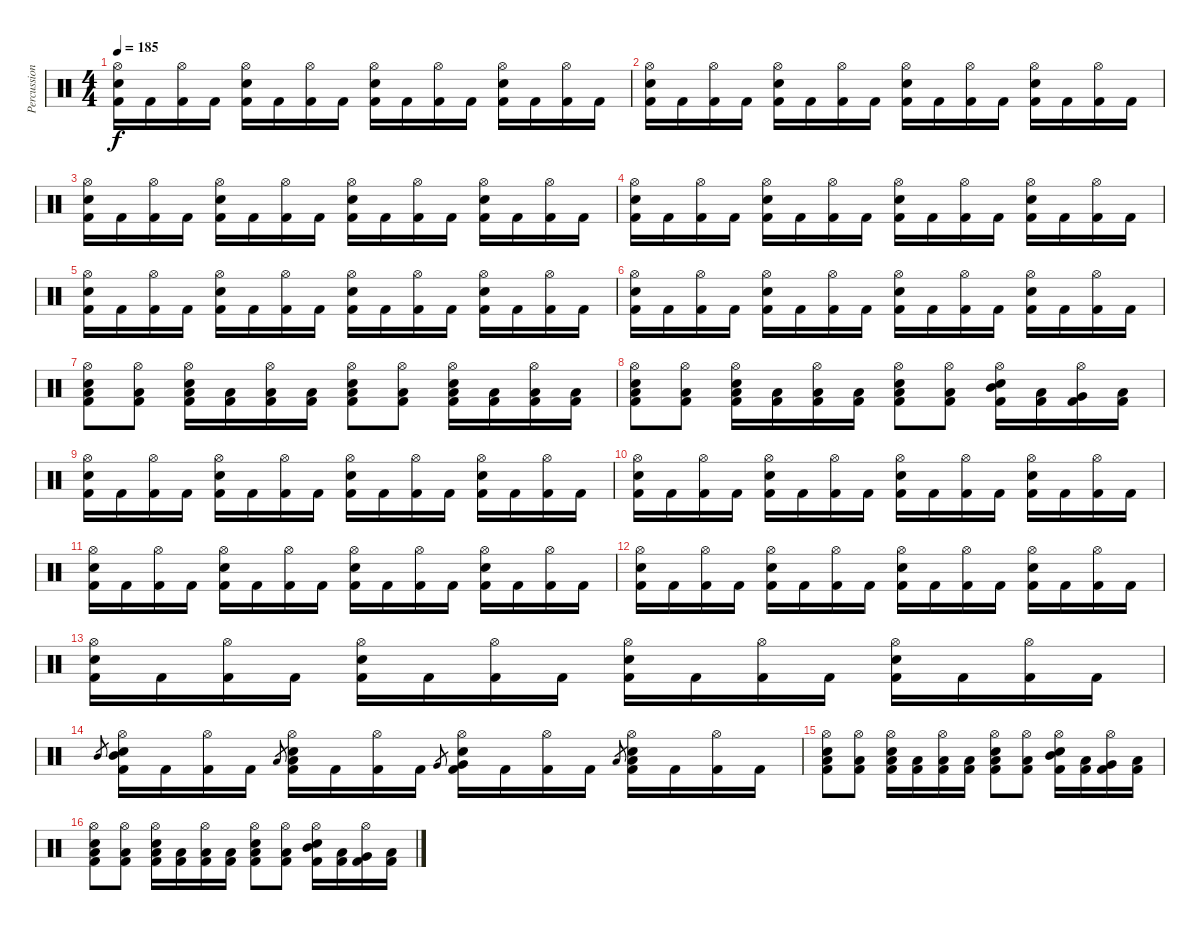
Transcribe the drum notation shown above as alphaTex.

\track ("Percussion" "Percussion") {instrument percussion}
\staff {score}
\articulation defaults
\ts (4 4)
\tempo 185
\clef neutral
\ks c
("Hi-Hat (open)" "Electric Snare (hit)" "Kick (hit) 2").16{dy f} "Kick (hit) 2".16 ("Hi-Hat (open)" "Kick (hit) 2").16 "Kick (hit) 2".16 ("Hi-Hat (open)" "Electric Snare (hit)" "Kick (hit) 2").16 "Kick (hit) 2".16 ("Hi-Hat (open)" "Kick (hit) 2").16 "Kick (hit) 2".16 ("Hi-Hat (open)" "Electric Snare (hit)" "Kick (hit) 2").16 "Kick (hit) 2".16 ("Hi-Hat (open)" "Kick (hit) 2").16 "Kick (hit) 2".16 ("Hi-Hat (open)" "Electric Snare (hit)" "Kick (hit) 2").16 "Kick (hit) 2".16 ("Hi-Hat (open)" "Kick (hit) 2").16 "Kick (hit) 2".16 |
("Hi-Hat (open)" "Electric Snare (hit)" "Kick (hit) 2").16 "Kick (hit) 2".16 ("Hi-Hat (open)" "Kick (hit) 2").16 "Kick (hit) 2".16 ("Hi-Hat (open)" "Electric Snare (hit)" "Kick (hit) 2").16 "Kick (hit) 2".16 ("Hi-Hat (open)" "Kick (hit) 2").16 "Kick (hit) 2".16 ("Hi-Hat (open)" "Electric Snare (hit)" "Kick (hit) 2").16 "Kick (hit) 2".16 ("Hi-Hat (open)" "Kick (hit) 2").16 "Kick (hit) 2".16 ("Hi-Hat (open)" "Electric Snare (hit)" "Kick (hit) 2").16 "Kick (hit) 2".16 ("Hi-Hat (open)" "Kick (hit) 2").16 "Kick (hit) 2".16 |
("Hi-Hat (open)" "Electric Snare (hit)" "Kick (hit) 2").16 "Kick (hit) 2".16 ("Hi-Hat (open)" "Kick (hit) 2").16 "Kick (hit) 2".16 ("Hi-Hat (open)" "Electric Snare (hit)" "Kick (hit) 2").16 "Kick (hit) 2".16 ("Hi-Hat (open)" "Kick (hit) 2").16 "Kick (hit) 2".16 ("Hi-Hat (open)" "Electric Snare (hit)" "Kick (hit) 2").16 "Kick (hit) 2".16 ("Hi-Hat (open)" "Kick (hit) 2").16 "Kick (hit) 2".16 ("Hi-Hat (open)" "Electric Snare (hit)" "Kick (hit) 2").16 "Kick (hit) 2".16 ("Hi-Hat (open)" "Kick (hit) 2").16 "Kick (hit) 2".16 |
("Hi-Hat (open)" "Electric Snare (hit)" "Kick (hit) 2").16 "Kick (hit) 2".16 ("Hi-Hat (open)" "Kick (hit) 2").16 "Kick (hit) 2".16 ("Hi-Hat (open)" "Electric Snare (hit)" "Kick (hit) 2").16 "Kick (hit) 2".16 ("Hi-Hat (open)" "Kick (hit) 2").16 "Kick (hit) 2".16 ("Hi-Hat (open)" "Electric Snare (hit)" "Kick (hit) 2").16 "Kick (hit) 2".16 ("Hi-Hat (open)" "Kick (hit) 2").16 "Kick (hit) 2".16 ("Hi-Hat (open)" "Electric Snare (hit)" "Kick (hit) 2").16 "Kick (hit) 2".16 ("Hi-Hat (open)" "Kick (hit) 2").16 "Kick (hit) 2".16 |
("Hi-Hat (open)" "Electric Snare (hit)" "Kick (hit) 2").16 "Kick (hit) 2".16 ("Hi-Hat (open)" "Kick (hit) 2").16 "Kick (hit) 2".16 ("Hi-Hat (open)" "Electric Snare (hit)" "Kick (hit) 2").16 "Kick (hit) 2".16 ("Hi-Hat (open)" "Kick (hit) 2").16 "Kick (hit) 2".16 ("Hi-Hat (open)" "Electric Snare (hit)" "Kick (hit) 2").16 "Kick (hit) 2".16 ("Hi-Hat (open)" "Kick (hit) 2").16 "Kick (hit) 2".16 ("Hi-Hat (open)" "Electric Snare (hit)" "Kick (hit) 2").16 "Kick (hit) 2".16 ("Hi-Hat (open)" "Kick (hit) 2").16 "Kick (hit) 2".16 |
("Hi-Hat (open)" "Electric Snare (hit)" "Kick (hit) 2").16 "Kick (hit) 2".16 ("Hi-Hat (open)" "Kick (hit) 2").16 "Kick (hit) 2".16 ("Hi-Hat (open)" "Electric Snare (hit)" "Kick (hit) 2").16 "Kick (hit) 2".16 ("Hi-Hat (open)" "Kick (hit) 2").16 "Kick (hit) 2".16 ("Hi-Hat (open)" "Electric Snare (hit)" "Kick (hit) 2").16 "Kick (hit) 2".16 ("Hi-Hat (open)" "Kick (hit) 2").16 "Kick (hit) 2".16 ("Hi-Hat (open)" "Electric Snare (hit)" "Kick (hit) 2").16 "Kick (hit) 2".16 ("Hi-Hat (open)" "Kick (hit) 2").16 "Kick (hit) 2".16 |
("Hi-Hat (open)" "Low Floor Tom (hit)" "Electric Snare (hit)" "Kick (hit) 2").8 ("Hi-Hat (open)" "Low Floor Tom (hit)" "Kick (hit) 2").8 ("Hi-Hat (open)" "Low Floor Tom (hit)" "Electric Snare (hit)" "Kick (hit) 2").16 ("Low Floor Tom (hit)" "Kick (hit) 2").16 ("Hi-Hat (open)" "Low Floor Tom (hit)" "Kick (hit) 2").16 ("Low Floor Tom (hit)" "Kick (hit) 2").16 ("Hi-Hat (open)" "Low Floor Tom (hit)" "Electric Snare (hit)" "Kick (hit) 2").8 ("Hi-Hat (open)" "Low Floor Tom (hit)" "Kick (hit) 2").8 ("Hi-Hat (open)" "Low Floor Tom (hit)" "Electric Snare (hit)" "Kick (hit) 2").16 ("Low Floor Tom (hit)" "Kick (hit) 2").16 ("Hi-Hat (open)" "Low Floor Tom (hit)" "Kick (hit) 2").16 ("Low Floor Tom (hit)" "Kick (hit) 2").16 |
("Hi-Hat (open)" "Low Floor Tom (hit)" "Electric Snare (hit)" "Kick (hit) 2").8 ("Hi-Hat (open)" "Low Floor Tom (hit)" "Kick (hit) 2").8 ("Hi-Hat (open)" "Low Floor Tom (hit)" "Electric Snare (hit)" "Kick (hit) 2").16 ("Low Floor Tom (hit)" "Kick (hit) 2").16 ("Hi-Hat (open)" "Low Floor Tom (hit)" "Kick (hit) 2").16 ("Low Floor Tom (hit)" "Kick (hit) 2").16 ("Hi-Hat (open)" "Low Floor Tom (hit)" "Electric Snare (hit)" "Kick (hit) 2").8 ("Hi-Hat (open)" "Low Floor Tom (hit)" "Kick (hit) 2").8 ("Hi-Hat (open)" "Mid Tom (hit)" "Electric Snare (hit)" "Kick (hit) 2").16 ("Low Tom (hit)" "Kick (hit) 2").16 ("Hi-Hat (open)" "Very Low Tom (hit)" "Kick (hit) 2").16 ("Low Floor Tom (hit)" "Kick (hit) 2").16 |
("Hi-Hat (open)" "Electric Snare (hit)" "Kick (hit) 2").16 "Kick (hit) 2".16 ("Hi-Hat (open)" "Kick (hit) 2").16 "Kick (hit) 2".16 ("Hi-Hat (open)" "Electric Snare (hit)" "Kick (hit) 2").16 "Kick (hit) 2".16 ("Hi-Hat (open)" "Kick (hit) 2").16 "Kick (hit) 2".16 ("Hi-Hat (open)" "Electric Snare (hit)" "Kick (hit) 2").16 "Kick (hit) 2".16 ("Hi-Hat (open)" "Kick (hit) 2").16 "Kick (hit) 2".16 ("Hi-Hat (open)" "Electric Snare (hit)" "Kick (hit) 2").16 "Kick (hit) 2".16 ("Hi-Hat (open)" "Kick (hit) 2").16 "Kick (hit) 2".16 |
("Hi-Hat (open)" "Electric Snare (hit)" "Kick (hit) 2").16 "Kick (hit) 2".16 ("Hi-Hat (open)" "Kick (hit) 2").16 "Kick (hit) 2".16 ("Hi-Hat (open)" "Electric Snare (hit)" "Kick (hit) 2").16 "Kick (hit) 2".16 ("Hi-Hat (open)" "Kick (hit) 2").16 "Kick (hit) 2".16 ("Hi-Hat (open)" "Electric Snare (hit)" "Kick (hit) 2").16 "Kick (hit) 2".16 ("Hi-Hat (open)" "Kick (hit) 2").16 "Kick (hit) 2".16 ("Hi-Hat (open)" "Electric Snare (hit)" "Kick (hit) 2").16 "Kick (hit) 2".16 ("Hi-Hat (open)" "Kick (hit) 2").16 "Kick (hit) 2".16 |
("Hi-Hat (open)" "Electric Snare (hit)" "Kick (hit) 2").16 "Kick (hit) 2".16 ("Hi-Hat (open)" "Kick (hit) 2").16 "Kick (hit) 2".16 ("Hi-Hat (open)" "Electric Snare (hit)" "Kick (hit) 2").16 "Kick (hit) 2".16 ("Hi-Hat (open)" "Kick (hit) 2").16 "Kick (hit) 2".16 ("Hi-Hat (open)" "Electric Snare (hit)" "Kick (hit) 2").16 "Kick (hit) 2".16 ("Hi-Hat (open)" "Kick (hit) 2").16 "Kick (hit) 2".16 ("Hi-Hat (open)" "Electric Snare (hit)" "Kick (hit) 2").16 "Kick (hit) 2".16 ("Hi-Hat (open)" "Kick (hit) 2").16 "Kick (hit) 2".16 |
("Hi-Hat (open)" "Electric Snare (hit)" "Kick (hit) 2").16 "Kick (hit) 2".16 ("Hi-Hat (open)" "Kick (hit) 2").16 "Kick (hit) 2".16 ("Hi-Hat (open)" "Electric Snare (hit)" "Kick (hit) 2").16 "Kick (hit) 2".16 ("Hi-Hat (open)" "Kick (hit) 2").16 "Kick (hit) 2".16 ("Hi-Hat (open)" "Electric Snare (hit)" "Kick (hit) 2").16 "Kick (hit) 2".16 ("Hi-Hat (open)" "Kick (hit) 2").16 "Kick (hit) 2".16 ("Hi-Hat (open)" "Electric Snare (hit)" "Kick (hit) 2").16 "Kick (hit) 2".16 ("Hi-Hat (open)" "Kick (hit) 2").16 "Kick (hit) 2".16 |
("Hi-Hat (open)" "Electric Snare (hit)" "Kick (hit) 2").16 "Kick (hit) 2".16 ("Hi-Hat (open)" "Kick (hit) 2").16 "Kick (hit) 2".16 ("Hi-Hat (open)" "Electric Snare (hit)" "Kick (hit) 2").16 "Kick (hit) 2".16 ("Hi-Hat (open)" "Kick (hit) 2").16 "Kick (hit) 2".16 ("Hi-Hat (open)" "Electric Snare (hit)" "Kick (hit) 2").16 "Kick (hit) 2".16 ("Hi-Hat (open)" "Kick (hit) 2").16 "Kick (hit) 2".16 ("Hi-Hat (open)" "Electric Snare (hit)" "Kick (hit) 2").16 "Kick (hit) 2".16 ("Hi-Hat (open)" "Kick (hit) 2").16 "Kick (hit) 2".16 |
"Mid Tom (hit)".8{gr} ("Hi-Hat (open)" "Mid Tom (hit)" "Electric Snare (hit)" "Kick (hit) 2").16 "Kick (hit) 2".16 ("Hi-Hat (open)" "Kick (hit) 2").16 "Kick (hit) 2".16 "Low Tom (hit)".8{gr} ("Hi-Hat (open)" "Low Tom (hit)" "Electric Snare (hit)" "Kick (hit) 2").16 "Kick (hit) 2".16 ("Hi-Hat (open)" "Kick (hit) 2").16 "Kick (hit) 2".16 "Very Low Tom (hit)".8{gr} ("Hi-Hat (open)" "Very Low Tom (hit)" "Electric Snare (hit)" "Kick (hit) 2").16 "Kick (hit) 2".16 ("Hi-Hat (open)" "Kick (hit) 2").16 "Kick (hit) 2".16 "Low Floor Tom (hit)".8{gr} ("Hi-Hat (open)" "Low Floor Tom (hit)" "Electric Snare (hit)" "Kick (hit) 2").16 "Kick (hit) 2".16 ("Hi-Hat (open)" "Kick (hit) 2").16 "Kick (hit) 2".16 |
("Hi-Hat (open)" "Low Floor Tom (hit)" "Electric Snare (hit)" "Kick (hit) 2").8 ("Hi-Hat (open)" "Low Floor Tom (hit)" "Kick (hit) 2").8 ("Hi-Hat (open)" "Low Floor Tom (hit)" "Electric Snare (hit)" "Kick (hit) 2").16 ("Low Floor Tom (hit)" "Kick (hit) 2").16 ("Hi-Hat (open)" "Low Floor Tom (hit)" "Kick (hit) 2").16 ("Low Floor Tom (hit)" "Kick (hit) 2").16 ("Hi-Hat (open)" "Low Floor Tom (hit)" "Electric Snare (hit)" "Kick (hit) 2").8 ("Hi-Hat (open)" "Low Floor Tom (hit)" "Kick (hit) 2").8 ("Hi-Hat (open)" "Mid Tom (hit)" "Electric Snare (hit)" "Kick (hit) 2").16 ("Low Tom (hit)" "Kick (hit) 2").16 ("Hi-Hat (open)" "Very Low Tom (hit)" "Kick (hit) 2").16 ("Low Floor Tom (hit)" "Kick (hit) 2").16 |
("Hi-Hat (open)" "Low Floor Tom (hit)" "Electric Snare (hit)" "Kick (hit) 2").8 ("Hi-Hat (open)" "Low Floor Tom (hit)" "Kick (hit) 2").8 ("Hi-Hat (open)" "Low Floor Tom (hit)" "Electric Snare (hit)" "Kick (hit) 2").16 ("Low Floor Tom (hit)" "Kick (hit) 2").16 ("Hi-Hat (open)" "Low Floor Tom (hit)" "Kick (hit) 2").16 ("Low Floor Tom (hit)" "Kick (hit) 2").16 ("Hi-Hat (open)" "Low Floor Tom (hit)" "Electric Snare (hit)" "Kick (hit) 2").8 ("Hi-Hat (open)" "Low Floor Tom (hit)" "Kick (hit) 2").8 ("Hi-Hat (open)" "Mid Tom (hit)" "Electric Snare (hit)" "Kick (hit) 2").16 ("Low Tom (hit)" "Kick (hit) 2").16 ("Hi-Hat (open)" "Very Low Tom (hit)" "Kick (hit) 2").16 ("Low Floor Tom (hit)" "Kick (hit) 2").16
